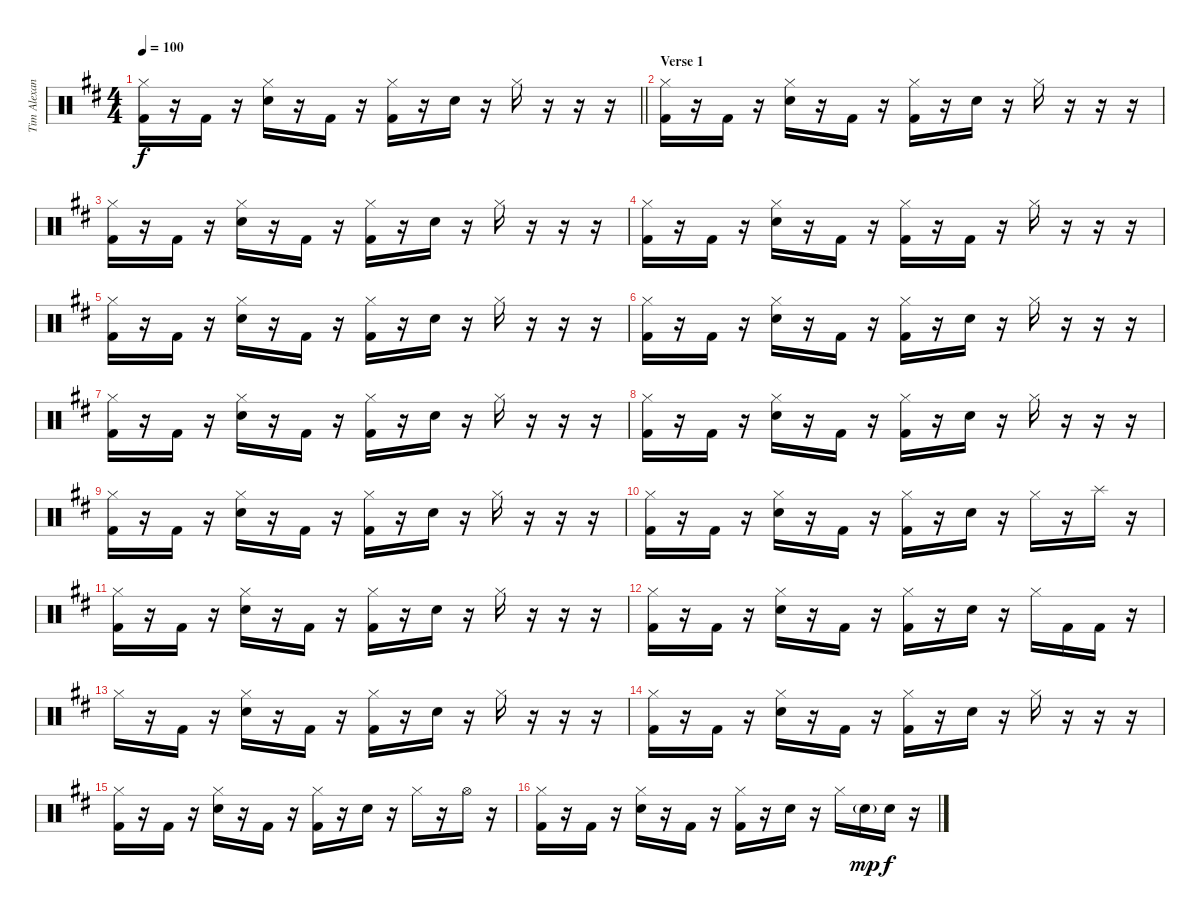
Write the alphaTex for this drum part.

\track ("Tim Alexander" "Tim Alexan") {instrument percussion}
\staff {score}
\articulation defaults
\ts (4 4)
\tempo 100
\clef neutral
\barLineRight lightlight
\ks d
("Hi-Hat (closed)" "Kick (hit) 2").16{dy f} r.16 "Kick (hit) 2".16 r.16 ("Hi-Hat (closed)" "Snare (hit) 2").16 r.16 "Kick (hit) 2".16 r.16 ("Hi-Hat (closed)" "Kick (hit) 2").16 r.16 "Snare (hit) 2".16 r.16 "Hi-Hat (closed)".16 r.16 r.16 r.16 |
\section ("" "Verse 1")
("Hi-Hat (closed)" "Kick (hit) 2").16 r.16 "Kick (hit) 2".16 r.16 ("Hi-Hat (closed)" "Snare (hit) 2").16 r.16 "Kick (hit) 2".16 r.16 ("Hi-Hat (closed)" "Kick (hit) 2").16 r.16 "Snare (hit) 2".16 r.16 "Hi-Hat (closed)".16 r.16 r.16 r.16 |
("Hi-Hat (closed)" "Kick (hit) 2").16 r.16 "Kick (hit) 2".16 r.16 ("Hi-Hat (closed)" "Snare (hit) 2").16 r.16 "Kick (hit) 2".16 r.16 ("Hi-Hat (closed)" "Kick (hit) 2").16 r.16 "Snare (hit) 2".16 r.16 "Hi-Hat (closed)".16 r.16 r.16 r.16 |
("Hi-Hat (closed)" "Kick (hit) 2").16 r.16 "Kick (hit) 2".16 r.16 ("Hi-Hat (closed)" "Snare (hit) 2").16 r.16 "Kick (hit) 2".16 r.16 ("Hi-Hat (closed)" "Kick (hit) 2").16 r.16 "Kick (hit) 2".16 r.16 "Hi-Hat (closed)".16 r.16 r.16 r.16 |
("Hi-Hat (closed)" "Kick (hit) 2").16 r.16 "Kick (hit) 2".16 r.16 ("Hi-Hat (closed)" "Snare (hit) 2").16 r.16 "Kick (hit) 2".16 r.16 ("Hi-Hat (closed)" "Kick (hit) 2").16 r.16 "Snare (hit) 2".16 r.16 "Hi-Hat (closed)".16 r.16 r.16 r.16 |
("Hi-Hat (closed)" "Kick (hit) 2").16 r.16 "Kick (hit) 2".16 r.16 ("Hi-Hat (closed)" "Snare (hit) 2").16 r.16 "Kick (hit) 2".16 r.16 ("Hi-Hat (closed)" "Kick (hit) 2").16 r.16 "Snare (hit) 2".16 r.16 "Hi-Hat (closed)".16 r.16 r.16 r.16 |
("Hi-Hat (closed)" "Kick (hit) 2").16 r.16 "Kick (hit) 2".16 r.16 ("Hi-Hat (closed)" "Snare (hit) 2").16 r.16 "Kick (hit) 2".16 r.16 ("Hi-Hat (closed)" "Kick (hit) 2").16 r.16 "Snare (hit) 2".16 r.16 "Hi-Hat (closed)".16 r.16 r.16 r.16 |
("Hi-Hat (closed)" "Kick (hit) 2").16 r.16 "Kick (hit) 2".16 r.16 ("Hi-Hat (closed)" "Snare (hit) 2").16 r.16 "Kick (hit) 2".16 r.16 ("Hi-Hat (closed)" "Kick (hit) 2").16 r.16 "Snare (hit) 2".16 r.16 "Hi-Hat (closed)".16 r.16 r.16 r.16 |
("Hi-Hat (closed)" "Kick (hit) 2").16 r.16 "Kick (hit) 2".16 r.16 ("Hi-Hat (closed)" "Snare (hit) 2").16 r.16 "Kick (hit) 2".16 r.16 ("Hi-Hat (closed)" "Kick (hit) 2").16 r.16 "Snare (hit) 2".16 r.16 "Hi-Hat (closed)".16 r.16 r.16 r.16 |
("Hi-Hat (closed)" "Kick (hit) 2").16 r.16 "Kick (hit) 2".16 r.16 ("Hi-Hat (closed)" "Snare (hit) 2").16 r.16 "Kick (hit) 2".16 r.16 ("Hi-Hat (closed)" "Kick (hit) 2").16 r.16 "Snare (hit) 2".16 r.16 "Hi-Hat (closed)".16 r.16 "Splash (hit)".16 r.16 |
("Hi-Hat (closed)" "Kick (hit) 2").16 r.16 "Kick (hit) 2".16 r.16 ("Hi-Hat (closed)" "Snare (hit) 2").16 r.16 "Kick (hit) 2".16 r.16 ("Hi-Hat (closed)" "Kick (hit) 2").16 r.16 "Snare (hit) 2".16 r.16 "Hi-Hat (closed)".16 r.16 r.16 r.16 |
("Hi-Hat (closed)" "Kick (hit) 2").16 r.16 "Kick (hit) 2".16 r.16 ("Hi-Hat (closed)" "Snare (hit) 2").16 r.16 "Kick (hit) 2".16 r.16 ("Hi-Hat (closed)" "Kick (hit) 2").16 r.16 "Snare (hit) 2".16 r.16 "Hi-Hat (closed)".16 "Kick (hit) 2".16 "Kick (hit) 2".16 r.16 |
"Hi-Hat (closed)".16 r.16 "Kick (hit) 2".16 r.16 ("Hi-Hat (closed)" "Snare (hit) 2").16 r.16 "Kick (hit) 2".16 r.16 ("Hi-Hat (closed)" "Kick (hit) 2").16 r.16 "Snare (hit) 2".16 r.16 "Hi-Hat (closed)".16 r.16 r.16 r.16 |
("Hi-Hat (closed)" "Kick (hit) 2").16 r.16 "Kick (hit) 2".16 r.16 ("Hi-Hat (closed)" "Snare (hit) 2").16 r.16 "Kick (hit) 2".16 r.16 ("Hi-Hat (closed)" "Kick (hit) 2").16 r.16 "Snare (hit) 2".16 r.16 "Hi-Hat (closed)".16 r.16 r.16 r.16 |
("Hi-Hat (closed)" "Kick (hit) 2").16 r.16 "Kick (hit) 2".16 r.16 ("Hi-Hat (closed)" "Snare (hit) 2").16 r.16 "Kick (hit) 2".16 r.16 ("Hi-Hat (closed)" "Kick (hit) 2").16 r.16 "Snare (hit) 2".16 r.16 "Hi-Hat (closed)".16 r.16 "Hi-Hat (open)".16 r.16 |
("Hi-Hat (closed)" "Kick (hit) 2").16 r.16 "Kick (hit) 2".16 r.16 ("Hi-Hat (closed)" "Snare (hit) 2").16 r.16 "Kick (hit) 2".16 r.16 ("Hi-Hat (closed)" "Kick (hit) 2").16 r.16 "Snare (hit) 2".16 r.16 "Hi-Hat (closed)".16 "Snare (hit) 2"{g}.16{dy mp} "Snare (hit) 2".16{dy f} r.16
